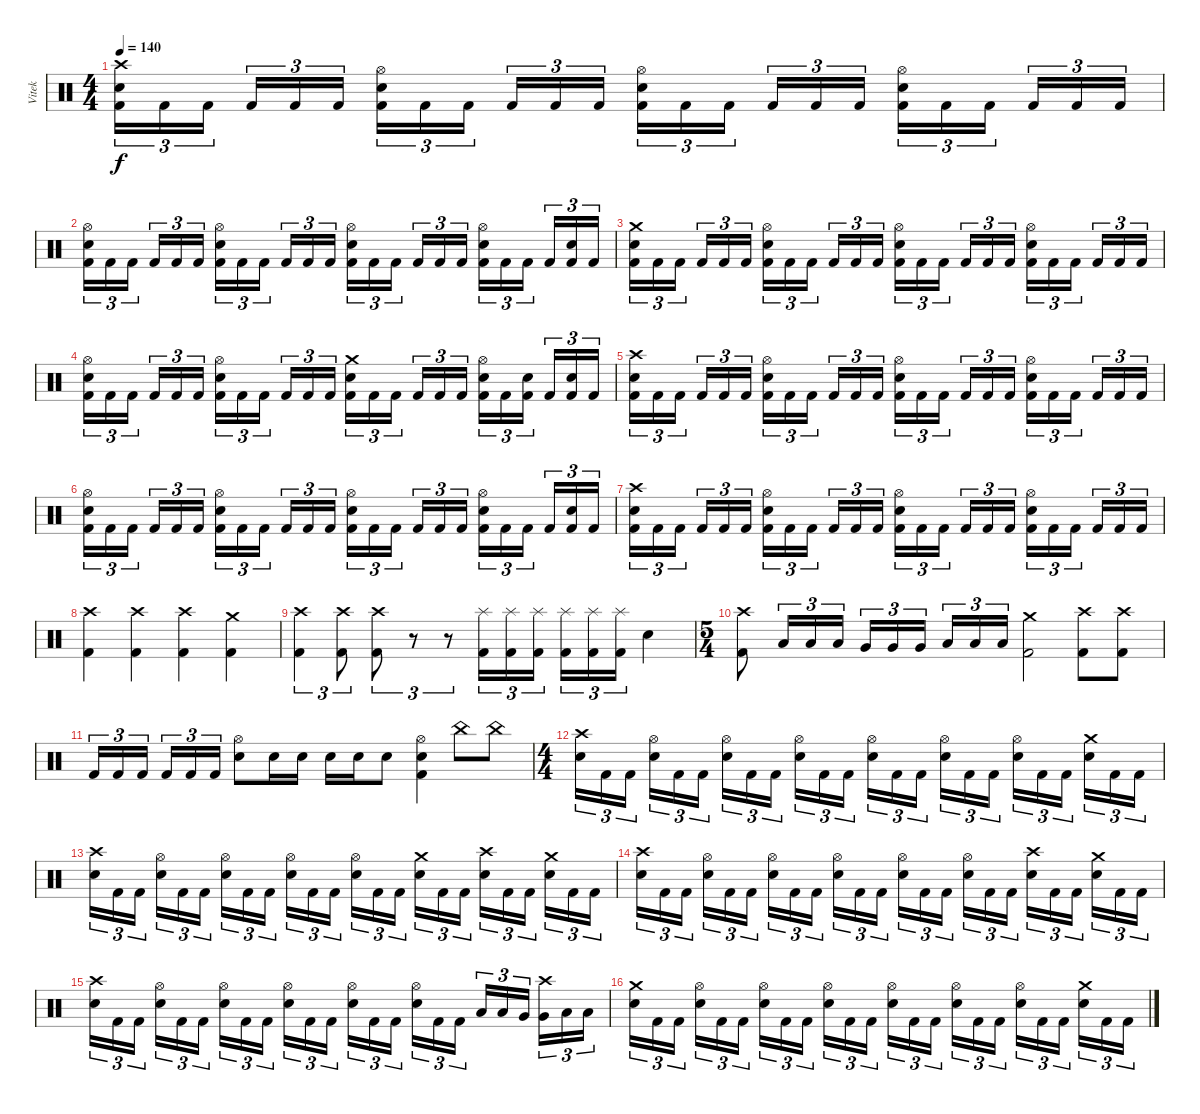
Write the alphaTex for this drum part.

\track ("Vitek" "Vitek") {instrument percussion}
\staff {score}
\articulation defaults
\ts (4 4)
\tempo 140
\clef neutral
\ks c
("Crash high (hit)" "Electric Snare (hit)" "Kick (hit) 2").16{tu (3 2) dy f} "Kick (hit) 2".16{tu (3 2)} "Kick (hit) 2".16{tu (3 2)} "Kick (hit) 2".16{tu (3 2)} "Kick (hit) 2".16{tu (3 2)} "Kick (hit) 2".16{tu (3 2)} ("Hi-Hat (open)" "Electric Snare (hit)" "Kick (hit) 2").16{tu (3 2)} "Kick (hit) 2".16{tu (3 2)} "Kick (hit) 2".16{tu (3 2)} "Kick (hit) 2".16{tu (3 2)} "Kick (hit) 2".16{tu (3 2)} "Kick (hit) 2".16{tu (3 2)} ("Hi-Hat (open)" "Electric Snare (hit)" "Kick (hit) 2").16{tu (3 2)} "Kick (hit) 2".16{tu (3 2)} "Kick (hit) 2".16{tu (3 2)} "Kick (hit) 2".16{tu (3 2)} "Kick (hit) 2".16{tu (3 2)} "Kick (hit) 2".16{tu (3 2)} ("Hi-Hat (open)" "Electric Snare (hit)" "Kick (hit) 2").16{tu (3 2)} "Kick (hit) 2".16{tu (3 2)} "Kick (hit) 2".16{tu (3 2)} "Kick (hit) 2".16{tu (3 2)} "Kick (hit) 2".16{tu (3 2)} "Kick (hit) 2".16{tu (3 2)} |
("Hi-Hat (open)" "Electric Snare (hit)" "Kick (hit) 2").16{tu (3 2)} "Kick (hit) 2".16{tu (3 2)} "Kick (hit) 2".16{tu (3 2)} "Kick (hit) 2".16{tu (3 2)} "Kick (hit) 2".16{tu (3 2)} "Kick (hit) 2".16{tu (3 2)} ("Hi-Hat (open)" "Electric Snare (hit)" "Kick (hit) 2").16{tu (3 2)} "Kick (hit) 2".16{tu (3 2)} "Kick (hit) 2".16{tu (3 2)} "Kick (hit) 2".16{tu (3 2)} "Kick (hit) 2".16{tu (3 2)} "Kick (hit) 2".16{tu (3 2)} ("Hi-Hat (open)" "Electric Snare (hit)" "Kick (hit) 2").16{tu (3 2)} "Kick (hit) 2".16{tu (3 2)} "Kick (hit) 2".16{tu (3 2)} "Kick (hit) 2".16{tu (3 2)} "Kick (hit) 2".16{tu (3 2)} "Kick (hit) 2".16{tu (3 2)} ("Hi-Hat (open)" "Electric Snare (hit)" "Kick (hit) 2").16{tu (3 2)} "Kick (hit) 2".16{tu (3 2)} "Kick (hit) 2".16{tu (3 2)} "Kick (hit) 2".16{tu (3 2)} ("Electric Snare (hit)" "Kick (hit) 2").16{tu (3 2)} "Kick (hit) 2".16{tu (3 2)} |
("Crash medium (hit)" "Electric Snare (hit)" "Kick (hit) 2").16{tu (3 2)} "Kick (hit) 2".16{tu (3 2)} "Kick (hit) 2".16{tu (3 2)} "Kick (hit) 2".16{tu (3 2)} "Kick (hit) 2".16{tu (3 2)} "Kick (hit) 2".16{tu (3 2)} ("Hi-Hat (open)" "Electric Snare (hit)" "Kick (hit) 2").16{tu (3 2)} "Kick (hit) 2".16{tu (3 2)} "Kick (hit) 2".16{tu (3 2)} "Kick (hit) 2".16{tu (3 2)} "Kick (hit) 2".16{tu (3 2)} "Kick (hit) 2".16{tu (3 2)} ("Hi-Hat (open)" "Electric Snare (hit)" "Kick (hit) 2").16{tu (3 2)} "Kick (hit) 2".16{tu (3 2)} "Kick (hit) 2".16{tu (3 2)} "Kick (hit) 2".16{tu (3 2)} "Kick (hit) 2".16{tu (3 2)} "Kick (hit) 2".16{tu (3 2)} ("Hi-Hat (open)" "Electric Snare (hit)" "Kick (hit) 2").16{tu (3 2)} "Kick (hit) 2".16{tu (3 2)} "Kick (hit) 2".16{tu (3 2)} "Kick (hit) 2".16{tu (3 2)} "Kick (hit) 2".16{tu (3 2)} "Kick (hit) 2".16{tu (3 2)} |
("Hi-Hat (open)" "Electric Snare (hit)" "Kick (hit) 2").16{tu (3 2)} "Kick (hit) 2".16{tu (3 2)} "Kick (hit) 2".16{tu (3 2)} "Kick (hit) 2".16{tu (3 2)} "Kick (hit) 2".16{tu (3 2)} "Kick (hit) 2".16{tu (3 2)} ("Hi-Hat (open)" "Electric Snare (hit)" "Kick (hit) 2").16{tu (3 2)} "Kick (hit) 2".16{tu (3 2)} "Kick (hit) 2".16{tu (3 2)} "Kick (hit) 2".16{tu (3 2)} "Kick (hit) 2".16{tu (3 2)} "Kick (hit) 2".16{tu (3 2)} ("Crash medium (hit)" "Electric Snare (hit)" "Kick (hit) 2").16{tu (3 2)} "Kick (hit) 2".16{tu (3 2)} "Kick (hit) 2".16{tu (3 2)} "Kick (hit) 2".16{tu (3 2)} "Kick (hit) 2".16{tu (3 2)} "Kick (hit) 2".16{tu (3 2)} ("Hi-Hat (open)" "Electric Snare (hit)" "Kick (hit) 2").16{tu (3 2)} "Kick (hit) 2".16{tu (3 2)} ("Electric Snare (hit)" "Kick (hit) 2").16{tu (3 2)} "Kick (hit) 2".16{tu (3 2)} ("Electric Snare (hit)" "Kick (hit) 2").16{tu (3 2)} "Kick (hit) 2".16{tu (3 2)} |
("Crash high (hit)" "Electric Snare (hit)" "Kick (hit) 2").16{tu (3 2)} "Kick (hit) 2".16{tu (3 2)} "Kick (hit) 2".16{tu (3 2)} "Kick (hit) 2".16{tu (3 2)} "Kick (hit) 2".16{tu (3 2)} "Kick (hit) 2".16{tu (3 2)} ("Hi-Hat (open)" "Electric Snare (hit)" "Kick (hit) 2").16{tu (3 2)} "Kick (hit) 2".16{tu (3 2)} "Kick (hit) 2".16{tu (3 2)} "Kick (hit) 2".16{tu (3 2)} "Kick (hit) 2".16{tu (3 2)} "Kick (hit) 2".16{tu (3 2)} ("Hi-Hat (open)" "Electric Snare (hit)" "Kick (hit) 2").16{tu (3 2)} "Kick (hit) 2".16{tu (3 2)} "Kick (hit) 2".16{tu (3 2)} "Kick (hit) 2".16{tu (3 2)} "Kick (hit) 2".16{tu (3 2)} "Kick (hit) 2".16{tu (3 2)} ("Hi-Hat (open)" "Electric Snare (hit)" "Kick (hit) 2").16{tu (3 2)} "Kick (hit) 2".16{tu (3 2)} "Kick (hit) 2".16{tu (3 2)} "Kick (hit) 2".16{tu (3 2)} "Kick (hit) 2".16{tu (3 2)} "Kick (hit) 2".16{tu (3 2)} |
("Hi-Hat (open)" "Electric Snare (hit)" "Kick (hit) 2").16{tu (3 2)} "Kick (hit) 2".16{tu (3 2)} "Kick (hit) 2".16{tu (3 2)} "Kick (hit) 2".16{tu (3 2)} "Kick (hit) 2".16{tu (3 2)} "Kick (hit) 2".16{tu (3 2)} ("Hi-Hat (open)" "Electric Snare (hit)" "Kick (hit) 2").16{tu (3 2)} "Kick (hit) 2".16{tu (3 2)} "Kick (hit) 2".16{tu (3 2)} "Kick (hit) 2".16{tu (3 2)} "Kick (hit) 2".16{tu (3 2)} "Kick (hit) 2".16{tu (3 2)} ("Hi-Hat (open)" "Electric Snare (hit)" "Kick (hit) 2").16{tu (3 2)} "Kick (hit) 2".16{tu (3 2)} "Kick (hit) 2".16{tu (3 2)} "Kick (hit) 2".16{tu (3 2)} "Kick (hit) 2".16{tu (3 2)} "Kick (hit) 2".16{tu (3 2)} ("Hi-Hat (open)" "Electric Snare (hit)" "Kick (hit) 2").16{tu (3 2)} "Kick (hit) 2".16{tu (3 2)} "Kick (hit) 2".16{tu (3 2)} "Kick (hit) 2".16{tu (3 2)} ("Electric Snare (hit)" "Kick (hit) 2").16{tu (3 2)} "Kick (hit) 2".16{tu (3 2)} |
("Crash high (hit)" "Electric Snare (hit)" "Kick (hit) 2").16{tu (3 2)} "Kick (hit) 2".16{tu (3 2)} "Kick (hit) 2".16{tu (3 2)} "Kick (hit) 2".16{tu (3 2)} "Kick (hit) 2".16{tu (3 2)} "Kick (hit) 2".16{tu (3 2)} ("Hi-Hat (open)" "Electric Snare (hit)" "Kick (hit) 2").16{tu (3 2)} "Kick (hit) 2".16{tu (3 2)} "Kick (hit) 2".16{tu (3 2)} "Kick (hit) 2".16{tu (3 2)} "Kick (hit) 2".16{tu (3 2)} "Kick (hit) 2".16{tu (3 2)} ("Hi-Hat (open)" "Electric Snare (hit)" "Kick (hit) 2").16{tu (3 2)} "Kick (hit) 2".16{tu (3 2)} "Kick (hit) 2".16{tu (3 2)} "Kick (hit) 2".16{tu (3 2)} "Kick (hit) 2".16{tu (3 2)} "Kick (hit) 2".16{tu (3 2)} ("Hi-Hat (open)" "Electric Snare (hit)" "Kick (hit) 2").16{tu (3 2)} "Kick (hit) 2".16{tu (3 2)} "Kick (hit) 2".16{tu (3 2)} "Kick (hit) 2".16{tu (3 2)} "Kick (hit) 2".16{tu (3 2)} "Kick (hit) 2".16{tu (3 2)} |
("Crash high (hit)" "Kick (hit) 2").4{volume 16} ("Crash high (hit)" "Kick (hit) 2").4 ("Crash high (hit)" "Kick (hit) 2").4 ("Crash medium (hit)" "Kick (hit) 2").4 |
("Crash high (hit)" "Kick (hit) 2").4{tu (3 2)} ("Crash high (hit)" "Kick (hit) 2").8{tu (3 2)} ("Crash high (hit)" "Kick (hit) 2").8{tu (3 2)} r.8{tu (3 2)} r.8{tu (3 2)} ("Splash (hit)" "Kick (hit) 2").16{tu (3 2)} ("Splash (hit)" "Kick (hit) 2").16{tu (3 2)} ("Splash (hit)" "Kick (hit) 2").16{tu (3 2)} ("Splash (hit)" "Kick (hit) 2").16{tu (3 2)} ("Splash (hit)" "Kick (hit) 2").16{tu (3 2)} ("Splash (hit)" "Kick (hit) 2").16{tu (3 2)} "Electric Snare (hit)".4 |
\ts (5 4)
("Crash high (hit)" "Kick (hit) 2").8 "Low Tom (hit)".16{tu (3 2)} "Low Tom (hit)".16{tu (3 2)} "Low Tom (hit)".16{tu (3 2)} "Very Low Tom (hit)".16{tu (3 2)} "Very Low Tom (hit)".16{tu (3 2)} "Very Low Tom (hit)".16{tu (3 2)} "Low Floor Tom (hit)".16{tu (3 2)} "Low Floor Tom (hit)".16{tu (3 2)} "Low Floor Tom (hit)".16{tu (3 2)} ("Crash medium (hit)" "Kick (hit) 2").2 ("Crash high (hit)" "Kick (hit) 2").8 ("Crash high (hit)" "Kick (hit) 2").8 |
"Kick (hit) 2".16{tu (3 2)} "Kick (hit) 2".16{tu (3 2)} "Kick (hit) 2".16{tu (3 2)} "Kick (hit) 2".16{tu (3 2)} "Kick (hit) 2".16{tu (3 2)} "Kick (hit) 2".16{tu (3 2)} ("Hi-Hat (open)" "Electric Snare (hit)").8 "Electric Snare (hit)".16 "Electric Snare (hit)".16 "Electric Snare (hit)".16 "Electric Snare (hit)".16 "Electric Snare (hit)".8 ("Hi-Hat (open)" "Electric Snare (hit)" "Kick (hit) 2").4 "China (hit)".8 "China (hit)".8 |
\ts (4 4)
("Crash high (hit)" "Electric Snare (hit)").16{tu (3 2)} "Kick (hit) 2".16{tu (3 2)} "Kick (hit) 2".16{tu (3 2)} ("Hi-Hat (open)" "Electric Snare (hit)").16{tu (3 2)} "Kick (hit) 2".16{tu (3 2)} "Kick (hit) 2".16{tu (3 2)} ("Hi-Hat (open)" "Electric Snare (hit)").16{tu (3 2)} "Kick (hit) 2".16{tu (3 2)} "Kick (hit) 2".16{tu (3 2)} ("Hi-Hat (open)" "Electric Snare (hit)").16{tu (3 2)} "Kick (hit) 2".16{tu (3 2)} "Kick (hit) 2".16{tu (3 2)} ("Hi-Hat (open)" "Electric Snare (hit)").16{tu (3 2)} "Kick (hit) 2".16{tu (3 2)} "Kick (hit) 2".16{tu (3 2)} ("Hi-Hat (open)" "Electric Snare (hit)").16{tu (3 2)} "Kick (hit) 2".16{tu (3 2)} "Kick (hit) 2".16{tu (3 2)} ("Hi-Hat (open)" "Electric Snare (hit)").16{tu (3 2)} "Kick (hit) 2".16{tu (3 2)} "Kick (hit) 2".16{tu (3 2)} ("Crash medium (hit)" "Electric Snare (hit)").16{tu (3 2)} "Kick (hit) 2".16{tu (3 2)} "Kick (hit) 2".16{tu (3 2)} |
("Crash high (hit)" "Electric Snare (hit)").16{tu (3 2)} "Kick (hit) 2".16{tu (3 2)} "Kick (hit) 2".16{tu (3 2)} ("Hi-Hat (open)" "Electric Snare (hit)").16{tu (3 2)} "Kick (hit) 2".16{tu (3 2)} "Kick (hit) 2".16{tu (3 2)} ("Hi-Hat (open)" "Electric Snare (hit)").16{tu (3 2)} "Kick (hit) 2".16{tu (3 2)} "Kick (hit) 2".16{tu (3 2)} ("Hi-Hat (open)" "Electric Snare (hit)").16{tu (3 2)} "Kick (hit) 2".16{tu (3 2)} "Kick (hit) 2".16{tu (3 2)} ("Hi-Hat (open)" "Electric Snare (hit)").16{tu (3 2)} "Kick (hit) 2".16{tu (3 2)} "Kick (hit) 2".16{tu (3 2)} ("Crash medium (hit)" "Electric Snare (hit)").16{tu (3 2)} "Kick (hit) 2".16{tu (3 2)} "Kick (hit) 2".16{tu (3 2)} ("Crash high (hit)" "Electric Snare (hit)").16{tu (3 2)} "Kick (hit) 2".16{tu (3 2)} "Kick (hit) 2".16{tu (3 2)} ("Crash medium (hit)" "Electric Snare (hit)").16{tu (3 2)} "Kick (hit) 2".16{tu (3 2)} "Kick (hit) 2".16{tu (3 2)} |
("Crash high (hit)" "Electric Snare (hit)").16{tu (3 2)} "Kick (hit) 2".16{tu (3 2)} "Kick (hit) 2".16{tu (3 2)} ("Hi-Hat (open)" "Electric Snare (hit)").16{tu (3 2)} "Kick (hit) 2".16{tu (3 2)} "Kick (hit) 2".16{tu (3 2)} ("Hi-Hat (open)" "Electric Snare (hit)").16{tu (3 2)} "Kick (hit) 2".16{tu (3 2)} "Kick (hit) 2".16{tu (3 2)} ("Hi-Hat (open)" "Electric Snare (hit)").16{tu (3 2)} "Kick (hit) 2".16{tu (3 2)} "Kick (hit) 2".16{tu (3 2)} ("Hi-Hat (open)" "Electric Snare (hit)").16{tu (3 2)} "Kick (hit) 2".16{tu (3 2)} "Kick (hit) 2".16{tu (3 2)} ("Hi-Hat (open)" "Electric Snare (hit)").16{tu (3 2)} "Kick (hit) 2".16{tu (3 2)} "Kick (hit) 2".16{tu (3 2)} ("Crash high (hit)" "Electric Snare (hit)").16{tu (3 2)} "Kick (hit) 2".16{tu (3 2)} "Kick (hit) 2".16{tu (3 2)} ("Crash medium (hit)" "Electric Snare (hit)").16{tu (3 2)} "Kick (hit) 2".16{tu (3 2)} "Kick (hit) 2".16{tu (3 2)} |
("Crash high (hit)" "Electric Snare (hit)").16{tu (3 2)} "Kick (hit) 2".16{tu (3 2)} "Kick (hit) 2".16{tu (3 2)} ("Hi-Hat (open)" "Electric Snare (hit)").16{tu (3 2)} "Kick (hit) 2".16{tu (3 2)} "Kick (hit) 2".16{tu (3 2)} ("Hi-Hat (open)" "Electric Snare (hit)").16{tu (3 2)} "Kick (hit) 2".16{tu (3 2)} "Kick (hit) 2".16{tu (3 2)} ("Hi-Hat (open)" "Electric Snare (hit)").16{tu (3 2)} "Kick (hit) 2".16{tu (3 2)} "Kick (hit) 2".16{tu (3 2)} ("Hi-Hat (open)" "Electric Snare (hit)").16{tu (3 2)} "Kick (hit) 2".16{tu (3 2)} "Kick (hit) 2".16{tu (3 2)} ("Hi-Hat (open)" "Electric Snare (hit)").16{tu (3 2)} "Kick (hit) 2".16{tu (3 2)} "Kick (hit) 2".16{tu (3 2)} "Low Tom (hit)".16{tu (3 2)} "Low Tom (hit)".16{tu (3 2)} "Very Low Tom (hit)".16{tu (3 2)} ("Crash high (hit)" "Very Low Tom (hit)").16{tu (3 2)} "Low Floor Tom (hit)".16{tu (3 2)} "Low Floor Tom (hit)".16{tu (3 2)} |
("Crash medium (hit)" "Electric Snare (hit)").16{tu (3 2)} "Kick (hit) 2".16{tu (3 2)} "Kick (hit) 2".16{tu (3 2)} ("Hi-Hat (open)" "Electric Snare (hit)").16{tu (3 2)} "Kick (hit) 2".16{tu (3 2)} "Kick (hit) 2".16{tu (3 2)} ("Hi-Hat (open)" "Electric Snare (hit)").16{tu (3 2)} "Kick (hit) 2".16{tu (3 2)} "Kick (hit) 2".16{tu (3 2)} ("Hi-Hat (open)" "Electric Snare (hit)").16{tu (3 2)} "Kick (hit) 2".16{tu (3 2)} "Kick (hit) 2".16{tu (3 2)} ("Hi-Hat (open)" "Electric Snare (hit)").16{tu (3 2)} "Kick (hit) 2".16{tu (3 2)} "Kick (hit) 2".16{tu (3 2)} ("Hi-Hat (open)" "Electric Snare (hit)").16{tu (3 2)} "Kick (hit) 2".16{tu (3 2)} "Kick (hit) 2".16{tu (3 2)} ("Hi-Hat (open)" "Electric Snare (hit)").16{tu (3 2)} "Kick (hit) 2".16{tu (3 2)} "Kick (hit) 2".16{tu (3 2)} ("Crash medium (hit)" "Electric Snare (hit)").16{tu (3 2)} "Kick (hit) 2".16{tu (3 2)} "Kick (hit) 2".16{tu (3 2)}
